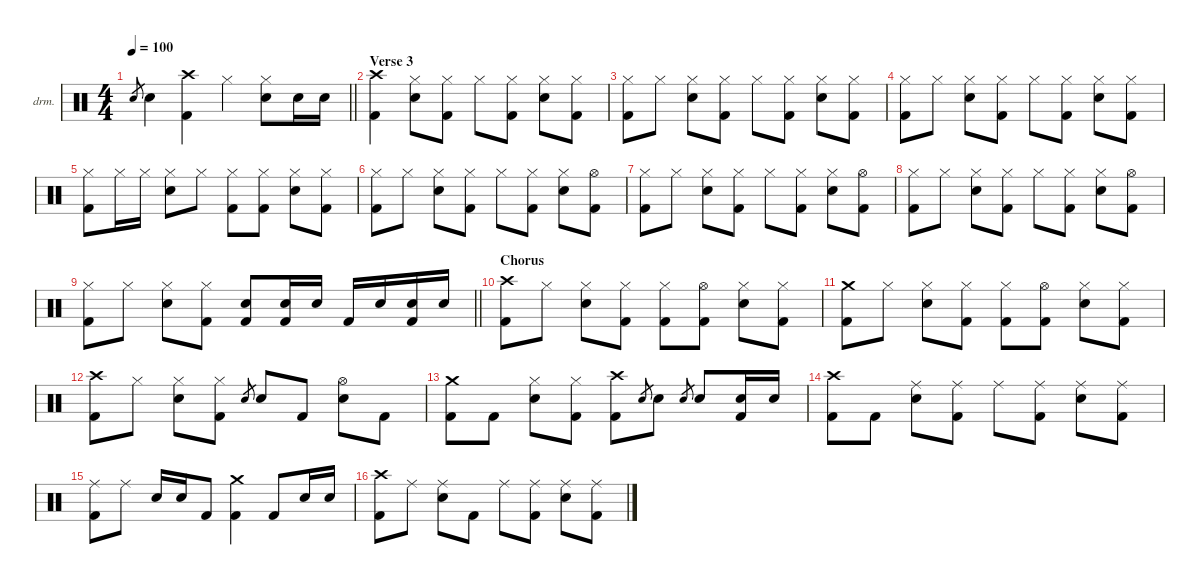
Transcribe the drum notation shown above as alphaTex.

\defaultSystemsLayout 4
\hideDynamics
\bracketExtendMode nobrackets
\firstSystemTrackNameOrientation horizontal
\otherSystemsTrackNameOrientation horizontal
\track ("Drums" "drm.") {instrument percussion}
\staff {score}
\articulation defaults
\ts (4 4)
\tempo 100
\clef neutral
\barLineRight lightlight
\ks c "Snare (hit) 2".8{gr dy mf} "Snare (hit) 2".4{dy f}
("Kick (hit) 2" "Crash high (hit)").4 "Hi-Hat (closed)".4 ("Snare (hit) 2" "Hi-Hat (closed)").8 "Snare (hit) 2".16 "Snare (hit) 2".16 |
\section ("" "Verse 3")
("Kick (hit) 2" "Crash high (hit)").4 ("Snare (hit) 2" "Hi-Hat (closed)").8 ("Kick (hit) 2" "Hi-Hat (closed)").8 "Hi-Hat (closed)".8 ("Kick (hit) 2" "Hi-Hat (closed)").8 ("Snare (hit) 2" "Hi-Hat (closed)").8 ("Kick (hit) 2" "Hi-Hat (closed)").8 |
("Kick (hit) 2" "Hi-Hat (closed)").8 "Hi-Hat (closed)".8 ("Snare (hit) 2" "Hi-Hat (closed)").8 ("Kick (hit) 2" "Hi-Hat (closed)").8 "Hi-Hat (closed)".8 ("Kick (hit) 2" "Hi-Hat (closed)").8 ("Snare (hit) 2" "Hi-Hat (closed)").8 ("Kick (hit) 2" "Hi-Hat (closed)").8 |
("Kick (hit) 2" "Hi-Hat (closed)").8 "Hi-Hat (closed)".8 ("Snare (hit) 2" "Hi-Hat (closed)").8 ("Kick (hit) 2" "Hi-Hat (closed)").8 "Hi-Hat (closed)".8 ("Kick (hit) 2" "Hi-Hat (closed)").8 ("Snare (hit) 2" "Hi-Hat (closed)").8 ("Kick (hit) 2" "Hi-Hat (closed)").8 |
("Kick (hit) 2" "Hi-Hat (closed)").8 "Hi-Hat (closed)".16 "Hi-Hat (closed)".16 ("Snare (hit) 2" "Hi-Hat (closed)").8 "Hi-Hat (closed)".8 ("Kick (hit) 2" "Hi-Hat (closed)").8 ("Kick (hit) 2" "Hi-Hat (closed)").8 ("Snare (hit) 2" "Hi-Hat (closed)").8 ("Kick (hit) 2" "Hi-Hat (closed)").8 |
("Kick (hit) 2" "Hi-Hat (closed)").8 "Hi-Hat (closed)".8 ("Snare (hit) 2" "Hi-Hat (closed)").8 ("Kick (hit) 2" "Hi-Hat (closed)").8 "Hi-Hat (closed)".8 ("Kick (hit) 2" "Hi-Hat (closed)").8 ("Snare (hit) 2" "Hi-Hat (closed)").8 ("Kick (hit) 2" "Hi-Hat (open)").8 |
("Kick (hit) 2" "Hi-Hat (closed)").8 "Hi-Hat (closed)".8 ("Snare (hit) 2" "Hi-Hat (closed)").8 ("Kick (hit) 2" "Hi-Hat (closed)").8 "Hi-Hat (closed)".8 ("Kick (hit) 2" "Hi-Hat (closed)").8 ("Snare (hit) 2" "Hi-Hat (closed)").8 ("Kick (hit) 2" "Hi-Hat (open)").8 |
("Kick (hit) 2" "Hi-Hat (closed)").8 "Hi-Hat (closed)".8 ("Snare (hit) 2" "Hi-Hat (closed)").8 ("Kick (hit) 2" "Hi-Hat (closed)").8 "Hi-Hat (closed)".8 ("Kick (hit) 2" "Hi-Hat (closed)").8 ("Snare (hit) 2" "Hi-Hat (closed)").8 ("Kick (hit) 2" "Hi-Hat (open)").8 |
\barLineRight lightlight
("Kick (hit) 2" "Hi-Hat (closed)").8 "Hi-Hat (closed)".8 ("Snare (hit) 2" "Hi-Hat (closed)").8 ("Kick (hit) 2" "Hi-Hat (closed)").8 ("Kick (hit) 2" "Snare (hit) 2").8 ("Kick (hit) 2" "Snare (hit) 2").16 "Snare (hit) 2".16 "Kick (hit) 2".16 "Snare (hit) 2".16 ("Kick (hit) 2" "Snare (hit) 2").16 "Snare (hit) 2".16 |
\section ("" "Chorus")
("Kick (hit) 2" "Crash high (hit)").8 "Hi-Hat (closed)".8 ("Snare (hit) 2" "Hi-Hat (closed)").8 ("Kick (hit) 2" "Hi-Hat (closed)").8 ("Kick (hit) 2" "Hi-Hat (closed)").8 ("Kick (hit) 2" "Hi-Hat (open)").8 ("Snare (hit) 2" "Hi-Hat (closed)").8 ("Kick (hit) 2" "Hi-Hat (closed)").8 |
("Kick (hit) 2" "Crash medium (hit)").8 "Hi-Hat (closed)".8 ("Snare (hit) 2" "Hi-Hat (closed)").8 ("Kick (hit) 2" "Hi-Hat (closed)").8 ("Kick (hit) 2" "Hi-Hat (closed)").8 ("Kick (hit) 2" "Hi-Hat (open)").8 ("Snare (hit) 2" "Hi-Hat (closed)").8 ("Kick (hit) 2" "Hi-Hat (closed)").8 |
("Kick (hit) 2" "Crash high (hit)").8 "Hi-Hat (closed)".8 ("Snare (hit) 2" "Hi-Hat (closed)").8 ("Kick (hit) 2" "Hi-Hat (closed)").8 "Snare (hit) 2".8{gr dy mf} "Snare (hit) 2".8{dy f} "Kick (hit) 2".8 ("Snare (hit) 2" "Hi-Hat (open)").8 "Kick (hit) 2".8 |
("Kick (hit) 2" "Crash medium (hit)").8 "Kick (hit) 2".8 ("Snare (hit) 2" "Hi-Hat (closed)").8 ("Kick (hit) 2" "Hi-Hat (closed)").8 ("Kick (hit) 2" "Crash high (hit)").8 "Snare (hit) 2".8{gr dy mf} "Snare (hit) 2".8{dy f} "Snare (hit) 2".8{gr dy mf} "Snare (hit) 2".8{dy f} ("Kick (hit) 2" "Snare (hit) 2").16 "Snare (hit) 2".16 |
("Kick (hit) 2" "Crash high (hit)").8 "Kick (hit) 2".8 ("Snare (hit) 2" "Ride (middle)").8 ("Kick (hit) 2" "Ride (middle)").8 "Ride (middle)".8 ("Kick (hit) 2" "Ride (middle)").8 ("Snare (hit) 2" "Ride (middle)").8 ("Kick (hit) 2" "Ride (middle)").8 |
("Kick (hit) 2" "Ride (middle)").8 "Ride (middle)".8 "Snare (hit) 2".16 "Snare (hit) 2".16 "Kick (hit) 2".8 ("Kick (hit) 2" "Crash medium (hit)").4 "Kick (hit) 2".8 "Snare (hit) 2".16 "Snare (hit) 2".16 |
("Kick (hit) 2" "Crash high (hit)").8 "Ride (middle)".8 ("Snare (hit) 2" "Ride (middle)").8 "Kick (hit) 2".8 "Ride (middle)".8 ("Kick (hit) 2" "Ride (middle)").8 ("Snare (hit) 2" "Ride (middle)").8 ("Kick (hit) 2" "Ride (middle)").8
